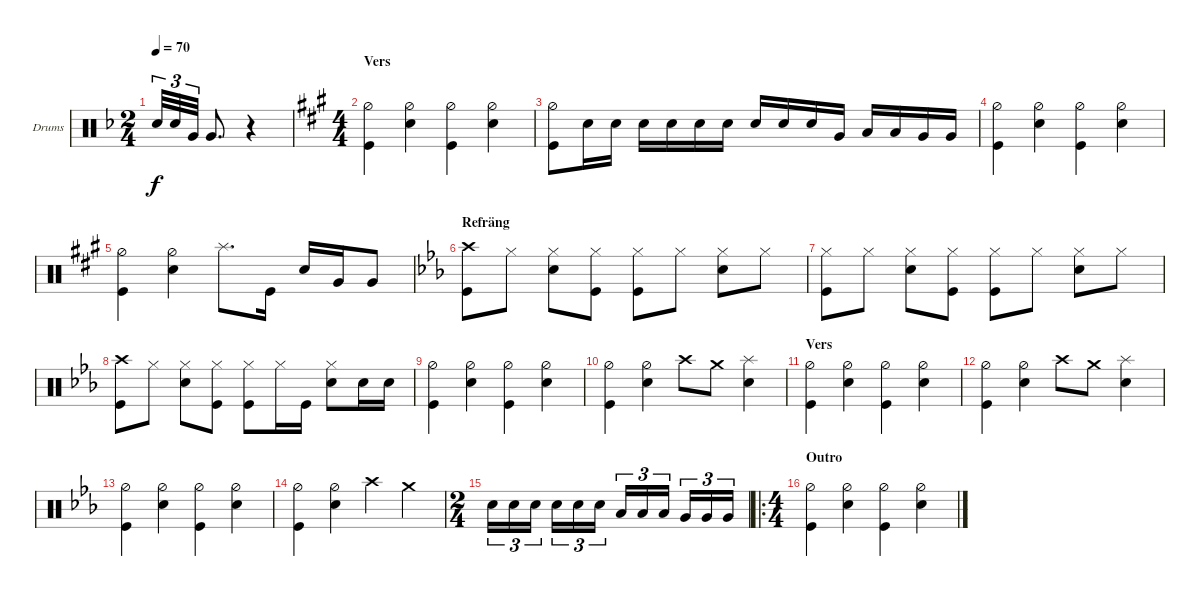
\defaultSystemsLayout 4
\bracketExtendMode groupsimilarinstruments
\firstSystemTrackNameOrientation horizontal
\otherSystemsTrackNameOrientation horizontal
\track ("Drumkit" "Drums") {instrument percussion}
\staff {score}
\articulation defaults
\ts (2 4)
\tempo 70
\clef neutral
\ks dminor "Snare (hit) 2".32{tu (3 2) dy f} "Snare (hit) 2".32{tu (3 2)} "Very Low Tom (hit)".32{tu (3 2)} "Very Low Tom (hit)".8{d}
r.4 |
\ts (4 4)
\section ("" "Vers")
\ks f#minor
("Hi-Hat (half)" "Kick (hit)").4 ("Hi-Hat (half)" "Snare (hit) 2").4 ("Hi-Hat (half)" "Kick (hit)").4 ("Hi-Hat (half)" "Snare (hit) 2").4 |
("Kick (hit)" "Hi-Hat (half)").8 "Snare (hit) 2".16 "Snare (hit) 2".16 "Snare (hit) 2".16 "Snare (hit) 2".16 "Snare (hit) 2".16 "Snare (hit) 2".16 "Snare (hit) 2".16 "Snare (hit) 2".16 "Snare (hit) 2".16 "Very Low Tom (hit)".16 "Low Tom (hit)".16 "Low Tom (hit)".16 "Very Low Tom (hit)".16 "Very Low Tom (hit)".16 |
("Hi-Hat (half)" "Kick (hit)").4 ("Hi-Hat (half)" "Snare (hit) 2").4 ("Hi-Hat (half)" "Kick (hit)").4 ("Hi-Hat (half)" "Snare (hit) 2").4 |
("Hi-Hat (half)" "Kick (hit)").4 ("Hi-Hat (half)" "Snare (hit) 2").4 "Splash (hit)".8{d} "Kick (hit)".16 "Snare (hit) 2".16 "Very Low Tom (hit)".16 "Very Low Tom (hit)".8 |
\section ("" "Refräng")
\ks cminor
("Crash high (hit)" "Kick (hit)").8 "Hi-Hat (closed)".8 ("Snare (hit) 2" "Hi-Hat (closed)").8 ("Kick (hit)" "Hi-Hat (closed)").8 ("Kick (hit)" "Hi-Hat (closed)").8 "Hi-Hat (closed)".8 ("Snare (hit) 2" "Hi-Hat (closed)").8 "Hi-Hat (closed)".8 |
("Kick (hit)" "Hi-Hat (closed)").8 "Hi-Hat (closed)".8 ("Snare (hit) 2" "Hi-Hat (closed)").8 ("Kick (hit)" "Hi-Hat (closed)").8 ("Kick (hit)" "Hi-Hat (closed)").8 "Hi-Hat (closed)".8 ("Snare (hit) 2" "Hi-Hat (closed)").8 "Hi-Hat (closed)".8 |
("Crash high (hit)" "Kick (hit)").8 "Hi-Hat (closed)".8 ("Snare (hit) 2" "Hi-Hat (closed)").8 ("Kick (hit)" "Hi-Hat (closed)").8 ("Kick (hit)" "Hi-Hat (closed)").8 "Hi-Hat (closed)".16 "Kick (hit)".16 ("Snare (hit) 2" "Hi-Hat (closed)").8 "Snare (hit) 2".16 "Snare (hit) 2".16 |
("Hi-Hat (half)" "Kick (hit)").4 ("Hi-Hat (half)" "Snare (hit) 2").4 ("Hi-Hat (half)" "Kick (hit)").4 ("Hi-Hat (half)" "Snare (hit) 2").4 |
("Hi-Hat (half)" "Kick (hit)").4 ("Hi-Hat (half)" "Snare (hit) 2").4 "Crash high (hit)".8 "Crash medium (hit)".8 ("Splash (hit)" "Snare (hit) 2").4 |
\section ("" "Vers")
("Hi-Hat (half)" "Kick (hit)").4 ("Hi-Hat (half)" "Snare (hit) 2").4 ("Hi-Hat (half)" "Kick (hit)").4 ("Hi-Hat (half)" "Snare (hit) 2").4 |
("Hi-Hat (half)" "Kick (hit)").4 ("Hi-Hat (half)" "Snare (hit) 2").4 "Crash high (hit)".8 "Crash medium (hit)".8 ("Splash (hit)" "Snare (hit) 2").4 |
("Hi-Hat (half)" "Kick (hit)").4 ("Hi-Hat (half)" "Snare (hit) 2").4 ("Hi-Hat (half)" "Kick (hit)").4 ("Hi-Hat (half)" "Snare (hit) 2").4 |
("Hi-Hat (half)" "Kick (hit)").4 ("Hi-Hat (half)" "Snare (hit) 2").4 "Crash high (hit)".4 "Crash medium (hit)".4 |
\ts (2 4)
"Snare (hit) 2".16{tu (3 2)} "Snare (hit) 2".16{tu (3 2)} "Snare (hit) 2".16{tu (3 2)} "Snare (hit) 2".16{tu (3 2)} "Snare (hit) 2".16{tu (3 2)} "Snare (hit) 2".16{tu (3 2)} "Low Tom (hit)".16{tu (3 2)} "Low Tom (hit)".16{tu (3 2)} "Low Tom (hit)".16{tu (3 2)} "Very Low Tom (hit)".16{tu (3 2)} "Very Low Tom (hit)".16{tu (3 2)} "Very Low Tom (hit)".16{tu (3 2)} |
\ro
\ts (4 4)
\section ("" "Outro")
("Hi-Hat (half)" "Kick (hit)").4 ("Hi-Hat (half)" "Snare (hit) 2").4 ("Hi-Hat (half)" "Kick (hit)").4 ("Hi-Hat (half)" "Snare (hit) 2").4
